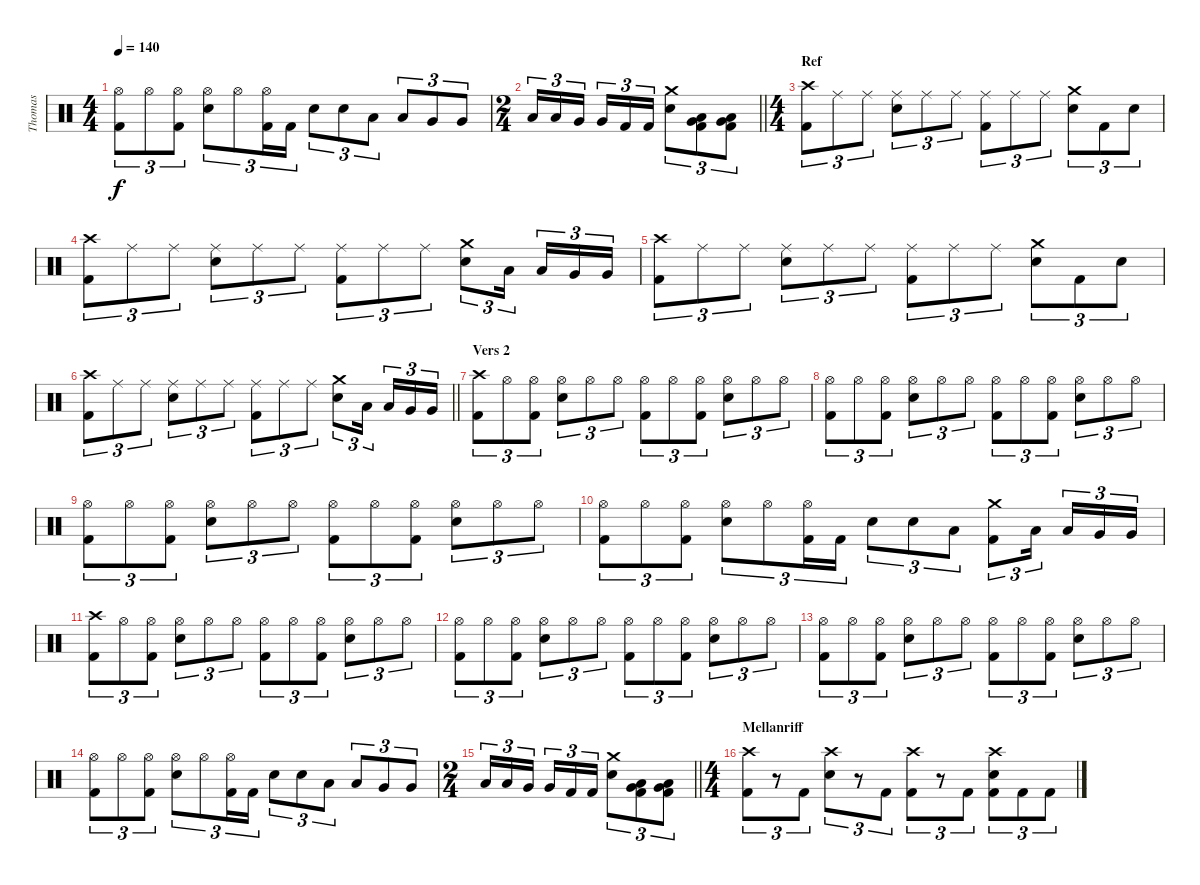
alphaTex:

\track ("Thomas" "Thomas") {instrument percussion}
\staff {score}
\articulation defaults
\ts (4 4)
\tempo 140
\clef neutral
\ks c
("Hi-Hat (open)" "Kick (hit) 2").8{tu (3 2) dy f} "Hi-Hat (open)".8{tu (3 2)} ("Hi-Hat (open)" "Kick (hit) 2").8{tu (3 2)} ("Hi-Hat (open)" "Snare (hit) 2").8{tu (3 2)} "Hi-Hat (open)".8{tu (3 2)} ("Hi-Hat (open)" "Kick (hit) 2").16{tu (3 2)} "Kick (hit) 2".16{tu (3 2)} "Snare (hit) 2".8{tu (3 2)} "Snare (hit) 2".8{tu (3 2)} "Low Tom (hit)".8{tu (3 2)} "Low Tom (hit)".8{tu (3 2)} "Very Low Tom (hit)".8{tu (3 2)} "Very Low Tom (hit)".8{tu (3 2)} |
\ts (2 4)
\barLineRight lightlight "Low Tom (hit)".16{tu (3 2)} "Low Tom (hit)".16{tu (3 2)} "Very Low Tom (hit)".16{tu (3 2) beam splitsecondary} "Very Low Tom (hit)".16{tu (3 2)} "Kick (hit) 2".16{tu (3 2)} "Kick (hit) 2".16{tu (3 2)}
("Crash medium (hit)" "Snare (hit) 2").8{tu (3 2)} ("Very Low Tom (hit)" "Low Floor Tom (hit)" "Kick (hit) 2").8{tu (3 2)} ("Very Low Tom (hit)" "Low Floor Tom (hit)" "Kick (hit) 2").8{tu (3 2)} |
\ts (4 4)
\section ("" "Ref")
("Crash high (hit)" "Kick (hit) 2").8{tu (3 2)} "Ride (middle)".8{tu (3 2)} "Ride (middle)".8{tu (3 2)} ("Ride (middle)" "Snare (hit) 2").8{tu (3 2)} "Ride (middle)".8{tu (3 2)} "Ride (middle)".8{tu (3 2)} ("Ride (middle)" "Kick (hit) 2").8{tu (3 2)} "Ride (middle)".8{tu (3 2)} "Ride (middle)".8{tu (3 2)} ("Crash medium (hit)" "Snare (hit) 2").8{tu (3 2)} "Kick (hit) 2".8{tu (3 2)} "Snare (hit) 2".8{tu (3 2)} |
("Crash high (hit)" "Kick (hit) 2").8{tu (3 2)} "Ride (middle)".8{tu (3 2)} "Ride (middle)".8{tu (3 2)} ("Ride (middle)" "Snare (hit) 2").8{tu (3 2)} "Ride (middle)".8{tu (3 2)} "Ride (middle)".8{tu (3 2)} ("Ride (middle)" "Kick (hit) 2").8{tu (3 2)} "Ride (middle)".8{tu (3 2)} "Ride (middle)".8{tu (3 2)} ("Crash medium (hit)" "Snare (hit) 2").8{tu (3 2)} "Low Tom (hit)".16{tu (3 2) beam splitsecondary} "Low Tom (hit)".16{tu (3 2)} "Very Low Tom (hit)".16{tu (3 2)} "Very Low Tom (hit)".16{tu (3 2)} |
("Crash high (hit)" "Kick (hit) 2").8{tu (3 2)} "Ride (middle)".8{tu (3 2)} "Ride (middle)".8{tu (3 2)} ("Ride (middle)" "Snare (hit) 2").8{tu (3 2)} "Ride (middle)".8{tu (3 2)} "Ride (middle)".8{tu (3 2)} ("Ride (middle)" "Kick (hit) 2").8{tu (3 2)} "Ride (middle)".8{tu (3 2)} "Ride (middle)".8{tu (3 2)} ("Crash medium (hit)" "Snare (hit) 2").8{tu (3 2)} "Kick (hit) 2".8{tu (3 2)} "Snare (hit) 2".8{tu (3 2)} |
\barLineRight lightlight
("Crash high (hit)" "Kick (hit) 2").8{tu (3 2)} "Ride (middle)".8{tu (3 2)} "Ride (middle)".8{tu (3 2)} ("Ride (middle)" "Snare (hit) 2").8{tu (3 2)} "Ride (middle)".8{tu (3 2)} "Ride (middle)".8{tu (3 2)} ("Ride (middle)" "Kick (hit) 2").8{tu (3 2)} "Ride (middle)".8{tu (3 2)} "Ride (middle)".8{tu (3 2)} ("Crash medium (hit)" "Snare (hit) 2").8{tu (3 2)} "Low Tom (hit)".16{tu (3 2) beam splitsecondary} "Low Tom (hit)".16{tu (3 2)} "Very Low Tom (hit)".16{tu (3 2)} "Very Low Tom (hit)".16{tu (3 2)} |
\section ("" "Vers 2")
("Crash high (hit)" "Kick (hit) 2").8{tu (3 2)} "Hi-Hat (open)".8{tu (3 2)} ("Hi-Hat (open)" "Kick (hit) 2").8{tu (3 2)} ("Hi-Hat (open)" "Snare (hit) 2").8{tu (3 2)} "Hi-Hat (open)".8{tu (3 2)} "Hi-Hat (open)".8{tu (3 2)} ("Hi-Hat (open)" "Kick (hit) 2").8{tu (3 2)} "Hi-Hat (open)".8{tu (3 2)} ("Hi-Hat (open)" "Kick (hit) 2").8{tu (3 2)} ("Hi-Hat (open)" "Snare (hit) 2").8{tu (3 2)} "Hi-Hat (open)".8{tu (3 2)} "Hi-Hat (open)".8{tu (3 2)} |
("Hi-Hat (open)" "Kick (hit) 2").8{tu (3 2)} "Hi-Hat (open)".8{tu (3 2)} ("Hi-Hat (open)" "Kick (hit) 2").8{tu (3 2)} ("Hi-Hat (open)" "Snare (hit) 2").8{tu (3 2)} "Hi-Hat (open)".8{tu (3 2)} "Hi-Hat (open)".8{tu (3 2)} ("Hi-Hat (open)" "Kick (hit) 2").8{tu (3 2)} "Hi-Hat (open)".8{tu (3 2)} ("Hi-Hat (open)" "Kick (hit) 2").8{tu (3 2)} ("Hi-Hat (open)" "Snare (hit) 2").8{tu (3 2)} "Hi-Hat (open)".8{tu (3 2)} "Hi-Hat (open)".8{tu (3 2)} |
("Hi-Hat (open)" "Kick (hit) 2").8{tu (3 2)} "Hi-Hat (open)".8{tu (3 2)} ("Hi-Hat (open)" "Kick (hit) 2").8{tu (3 2)} ("Hi-Hat (open)" "Snare (hit) 2").8{tu (3 2)} "Hi-Hat (open)".8{tu (3 2)} "Hi-Hat (open)".8{tu (3 2)} ("Hi-Hat (open)" "Kick (hit) 2").8{tu (3 2)} "Hi-Hat (open)".8{tu (3 2)} ("Hi-Hat (open)" "Kick (hit) 2").8{tu (3 2)} ("Hi-Hat (open)" "Snare (hit) 2").8{tu (3 2)} "Hi-Hat (open)".8{tu (3 2)} "Hi-Hat (open)".8{tu (3 2)} |
("Hi-Hat (open)" "Kick (hit) 2").8{tu (3 2)} "Hi-Hat (open)".8{tu (3 2)} ("Hi-Hat (open)" "Kick (hit) 2").8{tu (3 2)} ("Hi-Hat (open)" "Snare (hit) 2").8{tu (3 2)} "Hi-Hat (open)".8{tu (3 2)} ("Hi-Hat (open)" "Kick (hit) 2").16{tu (3 2)} "Kick (hit) 2".16{tu (3 2)} "Snare (hit) 2".8{tu (3 2)} "Snare (hit) 2".8{tu (3 2)} "Low Tom (hit)".8{tu (3 2)} ("Crash medium (hit)" "Kick (hit) 2").8{tu (3 2)} "Low Tom (hit)".16{tu (3 2) beam splitsecondary} "Low Tom (hit)".16{tu (3 2)} "Very Low Tom (hit)".16{tu (3 2)} "Very Low Tom (hit)".16{tu (3 2)} |
("Crash high (hit)" "Kick (hit) 2").8{tu (3 2)} "Hi-Hat (open)".8{tu (3 2)} ("Hi-Hat (open)" "Kick (hit) 2").8{tu (3 2)} ("Hi-Hat (open)" "Snare (hit) 2").8{tu (3 2)} "Hi-Hat (open)".8{tu (3 2)} "Hi-Hat (open)".8{tu (3 2)} ("Hi-Hat (open)" "Kick (hit) 2").8{tu (3 2)} "Hi-Hat (open)".8{tu (3 2)} ("Hi-Hat (open)" "Kick (hit) 2").8{tu (3 2)} ("Hi-Hat (open)" "Snare (hit) 2").8{tu (3 2)} "Hi-Hat (open)".8{tu (3 2)} "Hi-Hat (open)".8{tu (3 2)} |
("Hi-Hat (open)" "Kick (hit) 2").8{tu (3 2)} "Hi-Hat (open)".8{tu (3 2)} ("Hi-Hat (open)" "Kick (hit) 2").8{tu (3 2)} ("Hi-Hat (open)" "Snare (hit) 2").8{tu (3 2)} "Hi-Hat (open)".8{tu (3 2)} "Hi-Hat (open)".8{tu (3 2)} ("Hi-Hat (open)" "Kick (hit) 2").8{tu (3 2)} "Hi-Hat (open)".8{tu (3 2)} ("Hi-Hat (open)" "Kick (hit) 2").8{tu (3 2)} ("Hi-Hat (open)" "Snare (hit) 2").8{tu (3 2)} "Hi-Hat (open)".8{tu (3 2)} "Hi-Hat (open)".8{tu (3 2)} |
("Hi-Hat (open)" "Kick (hit) 2").8{tu (3 2)} "Hi-Hat (open)".8{tu (3 2)} ("Hi-Hat (open)" "Kick (hit) 2").8{tu (3 2)} ("Hi-Hat (open)" "Snare (hit) 2").8{tu (3 2)} "Hi-Hat (open)".8{tu (3 2)} "Hi-Hat (open)".8{tu (3 2)} ("Hi-Hat (open)" "Kick (hit) 2").8{tu (3 2)} "Hi-Hat (open)".8{tu (3 2)} ("Hi-Hat (open)" "Kick (hit) 2").8{tu (3 2)} ("Hi-Hat (open)" "Snare (hit) 2").8{tu (3 2)} "Hi-Hat (open)".8{tu (3 2)} "Hi-Hat (open)".8{tu (3 2)} |
("Hi-Hat (open)" "Kick (hit) 2").8{tu (3 2)} "Hi-Hat (open)".8{tu (3 2)} ("Hi-Hat (open)" "Kick (hit) 2").8{tu (3 2)} ("Hi-Hat (open)" "Snare (hit) 2").8{tu (3 2)} "Hi-Hat (open)".8{tu (3 2)} ("Hi-Hat (open)" "Kick (hit) 2").16{tu (3 2)} "Kick (hit) 2".16{tu (3 2)} "Snare (hit) 2".8{tu (3 2)} "Snare (hit) 2".8{tu (3 2)} "Low Tom (hit)".8{tu (3 2)} "Low Tom (hit)".8{tu (3 2)} "Very Low Tom (hit)".8{tu (3 2)} "Very Low Tom (hit)".8{tu (3 2)} |
\ts (2 4)
\barLineRight lightlight "Low Tom (hit)".16{tu (3 2)} "Low Tom (hit)".16{tu (3 2)} "Very Low Tom (hit)".16{tu (3 2) beam splitsecondary} "Very Low Tom (hit)".16{tu (3 2)} "Kick (hit) 2".16{tu (3 2)} "Kick (hit) 2".16{tu (3 2)}
("Crash medium (hit)" "Snare (hit) 2").8{tu (3 2)} ("Very Low Tom (hit)" "Low Floor Tom (hit)" "Kick (hit) 2").8{tu (3 2)} ("Very Low Tom (hit)" "Low Floor Tom (hit)" "Kick (hit) 2").8{tu (3 2)} |
\ts (4 4)
\section ("" "Mellanriff")
("Crash high (hit)" "Kick (hit) 2").8{tu (3 2)} r.8{tu (3 2)} "Kick (hit) 2".8{tu (3 2)} ("Crash high (hit)" "Snare (hit) 2").8{tu (3 2)} r.8{tu (3 2)} "Kick (hit) 2".8{tu (3 2)} ("Crash high (hit)" "Kick (hit) 2").8{tu (3 2)} r.8{tu (3 2)} "Kick (hit) 2".8{tu (3 2)} ("Crash high (hit)" "Snare (hit) 2" "Kick (hit) 2").8{tu (3 2)} "Kick (hit) 2".8{tu (3 2)} "Kick (hit) 2".8{tu (3 2)}
